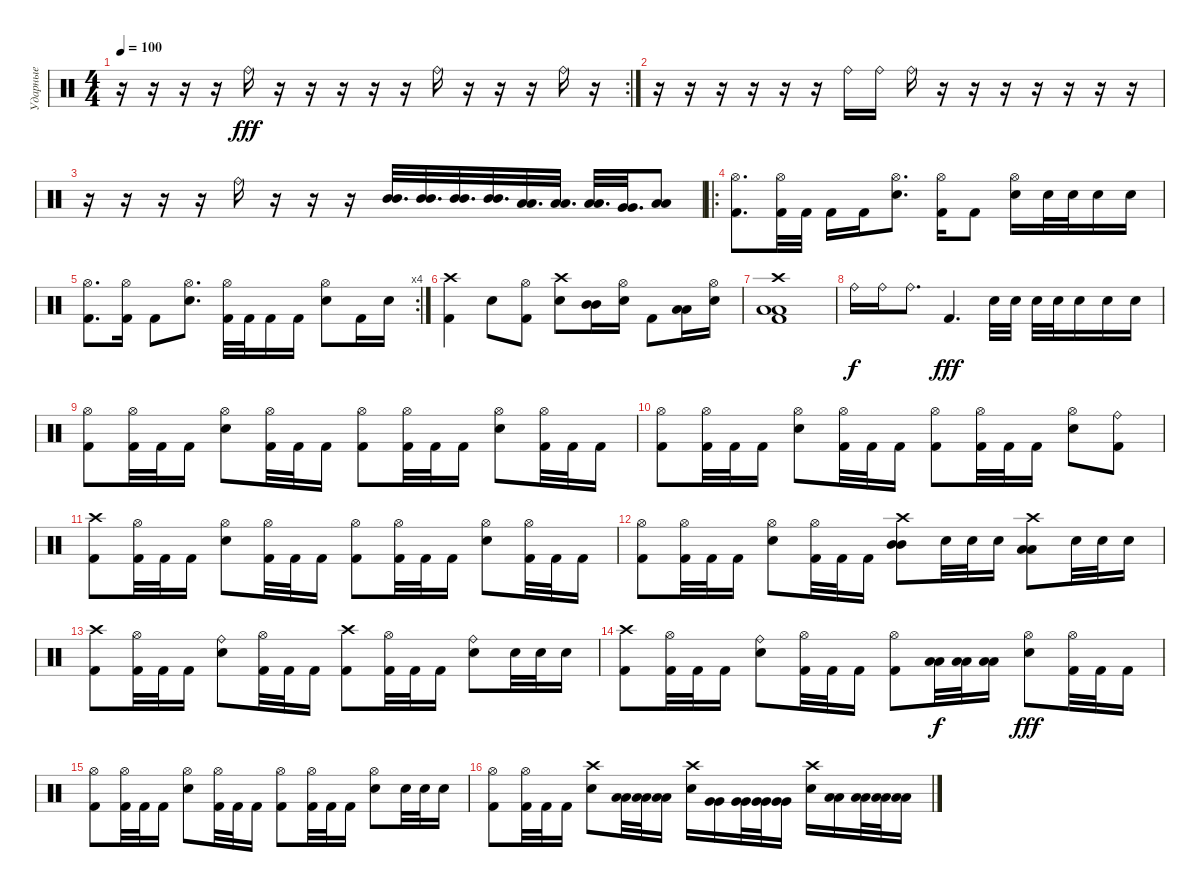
\track ("Ударные" "Ударные") {instrument percussion}
\staff {score}
\articulation defaults
\rc 2
\ts (4 4)
\tempo 100
\clef neutral
\ks c
r.16{dy fff} r.16 r.16 r.16 "Ride (bell)".16 r.16 r.16 r.16 r.16 r.16 "Ride (bell)".16 r.16 r.16 r.16 "Ride (bell)".16 r.16 |
r.16 r.16 r.16 r.16 r.16 r.16 "Ride (bell)".16 "Ride (bell)".16 "Ride (bell)".16 r.16 r.16 r.16 r.16 r.16 r.16 r.16 |
r.16 r.16 r.16 r.16 "Ride (bell)".16 r.16 r.16 r.16 ("Mid Tom (hit)" "Mid Tom (hit)").32{d} ("Mid Tom (hit)" "Mid Tom (hit)").32{d} ("Mid Tom (hit)" "Mid Tom (hit)").32{d} ("Mid Tom (hit)" "Mid Tom (hit)").32{d} ("Low Tom (hit)" "Low Tom (hit)").32{d} ("Low Tom (hit)" "Low Tom (hit)").32{d} ("Low Tom (hit)" "Low Tom (hit)").32{d} ("Very Low Tom (hit)" "Very Low Tom (hit)").32{d} ("Low Floor Tom (hit)" "Low Floor Tom (hit)").8 |
\ro
("Hi-Hat (open)" "Kick (hit) 2").8{d} ("Hi-Hat (open)" "Kick (hit) 2").32 "Kick (hit) 2".32 "Kick (hit) 2".16 "Kick (hit) 2".16 ("Hi-Hat (open)" "Electric Snare (hit)").8{d} ("Hi-Hat (open)" "Kick (hit) 2").16 "Kick (hit) 2".8 ("Hi-Hat (open)" "Electric Snare (hit)").16 "Electric Snare (hit)".32 "Electric Snare (hit)".32 "Electric Snare (hit)".16 "Electric Snare (hit)".16 |
\rc 4
("Hi-Hat (open)" "Kick (hit) 2").8{d} ("Hi-Hat (open)" "Kick (hit) 2").16 "Kick (hit) 2".8 ("Hi-Hat (open)" "Electric Snare (hit)").8{d} ("Hi-Hat (open)" "Kick (hit) 2").32 "Kick (hit) 2".32 "Kick (hit) 2".16 "Kick (hit) 2".16 ("Hi-Hat (open)" "Electric Snare (hit)").8 "Kick (hit) 2".16 "Electric Snare (hit)".16 |
("Crash high (hit)" "Kick (hit) 2").4 "Electric Snare (hit)".8 ("Hi-Hat (open)" "Kick (hit) 2").8 ("Crash high (hit)" "Electric Snare (hit)").8 ("Mid Tom (hit)" "Mid Tom (hit)").16 ("Hi-Hat (open)" "Electric Snare (hit)").16 "Kick (hit) 2".8 ("Low Tom (hit)" "Low Tom (hit)").16 ("Hi-Hat (open)" "Electric Snare (hit)").16 |
("Crash high (hit)" "Low Floor Tom (hit)" "Low Floor Tom (hit)" "Kick (hit) 2").1 |
"Ride (bell)".16{dy f} "Ride (bell)".16 "Ride (bell)".8{d} "Kick (hit) 2".4{d dy fff} "Electric Snare (hit)".32 "Electric Snare (hit)".32 "Electric Snare (hit)".32 "Electric Snare (hit)".32 "Electric Snare (hit)".16 "Electric Snare (hit)".16 "Electric Snare (hit)".16 |
("Hi-Hat (open)" "Kick (hit) 2").8 ("Hi-Hat (open)" "Kick (hit) 2").32 "Kick (hit) 2".32 "Kick (hit) 2".16 ("Hi-Hat (open)" "Electric Snare (hit)").8 ("Hi-Hat (open)" "Kick (hit) 2").32 "Kick (hit) 2".32 "Kick (hit) 2".16 ("Hi-Hat (open)" "Kick (hit) 2").8 ("Hi-Hat (open)" "Kick (hit) 2").32 "Kick (hit) 2".32 "Kick (hit) 2".16 ("Hi-Hat (open)" "Electric Snare (hit)").8 ("Hi-Hat (open)" "Kick (hit) 2").32 "Kick (hit) 2".32 "Kick (hit) 2".16 |
("Hi-Hat (open)" "Kick (hit) 2").8 ("Hi-Hat (open)" "Kick (hit) 2").32 "Kick (hit) 2".32 "Kick (hit) 2".16 ("Hi-Hat (open)" "Electric Snare (hit)").8 ("Hi-Hat (open)" "Kick (hit) 2").32 "Kick (hit) 2".32 "Kick (hit) 2".16 ("Hi-Hat (open)" "Kick (hit) 2").8 ("Hi-Hat (open)" "Kick (hit) 2").32 "Kick (hit) 2".32 "Kick (hit) 2".16 ("Hi-Hat (open)" "Electric Snare (hit)").8 ("Ride (bell)" "Kick (hit) 2").8 |
("Crash high (hit)" "Kick (hit) 2").8 ("Hi-Hat (open)" "Kick (hit) 2").32 "Kick (hit) 2".32 "Kick (hit) 2".16 ("Hi-Hat (open)" "Electric Snare (hit)").8 ("Hi-Hat (open)" "Kick (hit) 2").32 "Kick (hit) 2".32 "Kick (hit) 2".16 ("Hi-Hat (open)" "Kick (hit) 2").8 ("Hi-Hat (open)" "Kick (hit) 2").32 "Kick (hit) 2".32 "Kick (hit) 2".16 ("Hi-Hat (open)" "Electric Snare (hit)").8 ("Hi-Hat (open)" "Kick (hit) 2").32 "Kick (hit) 2".32 "Kick (hit) 2".16 |
("Hi-Hat (open)" "Kick (hit) 2").8 ("Hi-Hat (open)" "Kick (hit) 2").32 "Kick (hit) 2".32 "Kick (hit) 2".16 ("Hi-Hat (open)" "Electric Snare (hit)").8 ("Hi-Hat (open)" "Kick (hit) 2").32 "Kick (hit) 2".32 "Kick (hit) 2".16 ("Crash high (hit)" "Mid Tom (hit)" "Mid Tom (hit)").8 "Electric Snare (hit)".32 "Electric Snare (hit)".32 "Electric Snare (hit)".16 ("Crash high (hit)" "Low Tom (hit)" "Low Tom (hit)").8 "Electric Snare (hit)".32 "Electric Snare (hit)".32 "Electric Snare (hit)".16 |
("Crash high (hit)" "Kick (hit) 2").8 ("Hi-Hat (open)" "Kick (hit) 2").32 "Kick (hit) 2".32 "Kick (hit) 2".16 ("Ride (bell)" "Electric Snare (hit)").8 ("Hi-Hat (open)" "Kick (hit) 2").32 "Kick (hit) 2".32 "Kick (hit) 2".16 ("Crash high (hit)" "Kick (hit) 2").8 ("Hi-Hat (open)" "Kick (hit) 2").32 "Kick (hit) 2".32 "Kick (hit) 2".16 ("Ride (bell)" "Electric Snare (hit)").8 "Electric Snare (hit)".32 "Electric Snare (hit)".32 "Electric Snare (hit)".16 |
("Crash high (hit)" "Kick (hit) 2").8 ("Hi-Hat (open)" "Kick (hit) 2").32 "Kick (hit) 2".32 "Kick (hit) 2".16 ("Ride (bell)" "Electric Snare (hit)").8 ("Hi-Hat (open)" "Kick (hit) 2").32 "Kick (hit) 2".32 "Kick (hit) 2".16 ("Hi-Hat (open)" "Kick (hit) 2").8 ("Low Floor Tom (hit)" "Low Floor Tom (hit)").32{dy f} ("Low Floor Tom (hit)" "Low Floor Tom (hit)").32 ("Low Floor Tom (hit)" "Low Floor Tom (hit)").16 ("Hi-Hat (open)" "Electric Snare (hit)").8{dy fff} ("Hi-Hat (open)" "Kick (hit) 2").32 "Kick (hit) 2".32 "Kick (hit) 2".16 |
("Hi-Hat (open)" "Kick (hit) 2").8 ("Hi-Hat (open)" "Kick (hit) 2").32 "Kick (hit) 2".32 "Kick (hit) 2".16 ("Hi-Hat (open)" "Electric Snare (hit)").8 ("Hi-Hat (open)" "Kick (hit) 2").32 "Kick (hit) 2".32 "Kick (hit) 2".16 ("Hi-Hat (open)" "Kick (hit) 2").8 ("Hi-Hat (open)" "Kick (hit) 2").32 "Kick (hit) 2".32 "Kick (hit) 2".16 ("Hi-Hat (open)" "Electric Snare (hit)").8 "Electric Snare (hit)".32 "Electric Snare (hit)".32 "Electric Snare (hit)".16 |
("Hi-Hat (open)" "Kick (hit) 2").8 ("Hi-Hat (open)" "Kick (hit) 2").32 "Kick (hit) 2".32 "Kick (hit) 2".16 ("Crash high (hit)" "Electric Snare (hit)").8 ("Low Tom (hit)" "Low Tom (hit)").32 ("Low Tom (hit)" "Low Tom (hit)").32 ("Low Tom (hit)" "Low Tom (hit)").16 ("Crash high (hit)" "Electric Snare (hit)").16 ("Very Low Tom (hit)" "Very Low Tom (hit)").16 ("Very Low Tom (hit)" "Very Low Tom (hit)").32 ("Very Low Tom (hit)" "Very Low Tom (hit)").32 ("Very Low Tom (hit)" "Very Low Tom (hit)").16 ("Crash high (hit)" "Electric Snare (hit)").16 ("Low Floor Tom (hit)" "Low Floor Tom (hit)").16 ("Low Floor Tom (hit)" "Low Floor Tom (hit)").32 ("Low Floor Tom (hit)" "Low Floor Tom (hit)").32 ("Low Floor Tom (hit)" "Low Floor Tom (hit)").16
